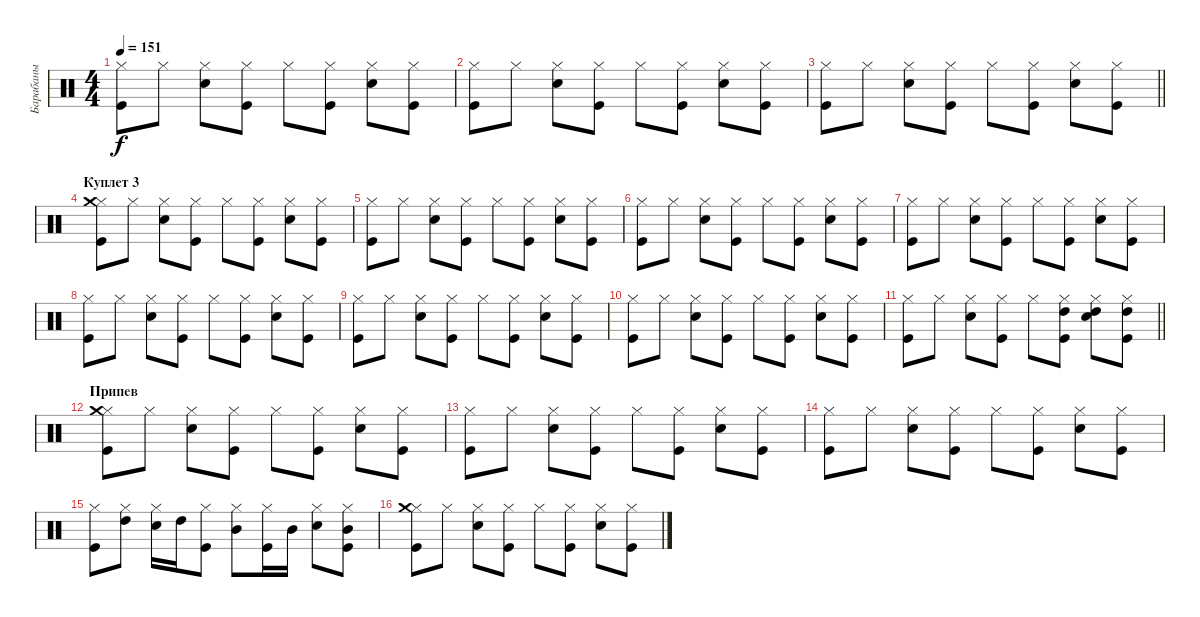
\track ("Барабаны" "Барабаны") {instrument percussion}
\staff {score}
\articulation defaults
\ts (4 4)
\tempo 151
\clef neutral
\ks c
("Kick (hit)" "Hi-Hat (closed)").8{dy f} "Hi-Hat (closed)".8 ("Snare (hit) 2" "Hi-Hat (closed)").8 ("Kick (hit)" "Hi-Hat (closed)").8 "Hi-Hat (closed)".8 ("Kick (hit)" "Hi-Hat (closed)").8 ("Snare (hit) 2" "Hi-Hat (closed)").8 ("Kick (hit)" "Hi-Hat (closed)").8 |
("Kick (hit)" "Hi-Hat (closed)").8 "Hi-Hat (closed)".8 ("Snare (hit) 2" "Hi-Hat (closed)").8 ("Kick (hit)" "Hi-Hat (closed)").8 "Hi-Hat (closed)".8 ("Kick (hit)" "Hi-Hat (closed)").8 ("Snare (hit) 2" "Hi-Hat (closed)").8 ("Kick (hit)" "Hi-Hat (closed)").8 |
\barLineRight lightlight
("Kick (hit)" "Hi-Hat (closed)").8 "Hi-Hat (closed)".8 ("Snare (hit) 2" "Hi-Hat (closed)").8 ("Kick (hit)" "Hi-Hat (closed)").8 "Hi-Hat (closed)".8 ("Kick (hit)" "Hi-Hat (closed)").8 ("Snare (hit) 2" "Hi-Hat (closed)").8 ("Kick (hit)" "Hi-Hat (closed)").8 |
\section ("" "Куплет 3")
("Kick (hit)" "Hi-Hat (closed)" "Crash medium (hit)").8 "Hi-Hat (closed)".8 ("Snare (hit) 2" "Hi-Hat (closed)").8 ("Kick (hit)" "Hi-Hat (closed)").8 "Hi-Hat (closed)".8 ("Kick (hit)" "Hi-Hat (closed)").8 ("Snare (hit) 2" "Hi-Hat (closed)").8 ("Kick (hit)" "Hi-Hat (closed)").8 |
("Kick (hit)" "Hi-Hat (closed)").8 "Hi-Hat (closed)".8 ("Snare (hit) 2" "Hi-Hat (closed)").8 ("Kick (hit)" "Hi-Hat (closed)").8 "Hi-Hat (closed)".8 ("Kick (hit)" "Hi-Hat (closed)").8 ("Snare (hit) 2" "Hi-Hat (closed)").8 ("Kick (hit)" "Hi-Hat (closed)").8 |
("Kick (hit)" "Hi-Hat (closed)").8 "Hi-Hat (closed)".8 ("Snare (hit) 2" "Hi-Hat (closed)").8 ("Kick (hit)" "Hi-Hat (closed)").8 "Hi-Hat (closed)".8 ("Kick (hit)" "Hi-Hat (closed)").8 ("Snare (hit) 2" "Hi-Hat (closed)").8 ("Kick (hit)" "Hi-Hat (closed)").8 |
("Kick (hit)" "Hi-Hat (closed)").8 "Hi-Hat (closed)".8 ("Snare (hit) 2" "Hi-Hat (closed)").8 ("Kick (hit)" "Hi-Hat (closed)").8 "Hi-Hat (closed)".8 ("Kick (hit)" "Hi-Hat (closed)").8 ("Snare (hit) 2" "Hi-Hat (closed)").8 ("Kick (hit)" "Hi-Hat (closed)").8 |
("Kick (hit)" "Hi-Hat (closed)").8 "Hi-Hat (closed)".8 ("Snare (hit) 2" "Hi-Hat (closed)").8 ("Kick (hit)" "Hi-Hat (closed)").8 "Hi-Hat (closed)".8 ("Kick (hit)" "Hi-Hat (closed)").8 ("Snare (hit) 2" "Hi-Hat (closed)").8 ("Kick (hit)" "Hi-Hat (closed)").8 |
("Kick (hit)" "Hi-Hat (closed)").8 "Hi-Hat (closed)".8 ("Snare (hit) 2" "Hi-Hat (closed)").8 ("Kick (hit)" "Hi-Hat (closed)").8 "Hi-Hat (closed)".8 ("Kick (hit)" "Hi-Hat (closed)").8 ("Snare (hit) 2" "Hi-Hat (closed)").8 ("Kick (hit)" "Hi-Hat (closed)").8 |
("Kick (hit)" "Hi-Hat (closed)").8 "Hi-Hat (closed)".8 ("Snare (hit) 2" "Hi-Hat (closed)").8 ("Kick (hit)" "Hi-Hat (closed)").8 "Hi-Hat (closed)".8 ("Kick (hit)" "Hi-Hat (closed)").8 ("Snare (hit) 2" "Hi-Hat (closed)").8 ("Kick (hit)" "Hi-Hat (closed)").8 |
\barLineRight lightlight
("Kick (hit)" "Hi-Hat (closed)").8 "Hi-Hat (closed)".8 ("Snare (hit) 2" "Hi-Hat (closed)").8 ("Kick (hit)" "Hi-Hat (closed)").8 "Hi-Hat (closed)".8 ("Kick (hit)" "Hi-Hat (closed)" "High Tom (hit)").8 ("Snare (hit) 2" "Hi-Hat (closed)" "High Tom (hit)").8 ("Kick (hit)" "Hi-Hat (closed)" "High Tom (hit)").8 |
\section ("" "Припев")
("Kick (hit)" "Hi-Hat (closed)" "Crash medium (hit)").8 "Hi-Hat (closed)".8 ("Snare (hit) 2" "Hi-Hat (closed)").8 ("Kick (hit)" "Hi-Hat (closed)").8 "Hi-Hat (closed)".8 ("Kick (hit)" "Hi-Hat (closed)").8 ("Snare (hit) 2" "Hi-Hat (closed)").8 ("Kick (hit)" "Hi-Hat (closed)").8 |
("Kick (hit)" "Hi-Hat (closed)").8 "Hi-Hat (closed)".8 ("Snare (hit) 2" "Hi-Hat (closed)").8 ("Kick (hit)" "Hi-Hat (closed)").8 "Hi-Hat (closed)".8 ("Kick (hit)" "Hi-Hat (closed)").8 ("Snare (hit) 2" "Hi-Hat (closed)").8 ("Kick (hit)" "Hi-Hat (closed)").8 |
("Kick (hit)" "Hi-Hat (closed)").8 "Hi-Hat (closed)".8 ("Snare (hit) 2" "Hi-Hat (closed)").8 ("Kick (hit)" "Hi-Hat (closed)").8 "Hi-Hat (closed)".8 ("Kick (hit)" "Hi-Hat (closed)").8 ("Snare (hit) 2" "Hi-Hat (closed)").8 ("Kick (hit)" "Hi-Hat (closed)").8 |
("Kick (hit)" "Hi-Hat (closed)").8 ("Hi-Hat (closed)" "High Tom (hit)").8 ("Snare (hit) 2" "Hi-Hat (closed)").16 "High Tom (hit)".16 ("Kick (hit)" "Hi-Hat (closed)").8 ("Hi-Hat (closed)" "Mid Tom (hit)").8 ("Kick (hit)" "Hi-Hat (closed)").16 "Mid Tom (hit)".16 ("Snare (hit) 2" "Hi-Hat (closed)").8 ("Kick (hit)" "Hi-Hat (closed)" "Mid Tom (hit)").8 |
("Kick (hit)" "Hi-Hat (closed)" "Crash medium (hit)").8 "Hi-Hat (closed)".8 ("Snare (hit) 2" "Hi-Hat (closed)").8 ("Kick (hit)" "Hi-Hat (closed)").8 "Hi-Hat (closed)".8 ("Kick (hit)" "Hi-Hat (closed)").8 ("Snare (hit) 2" "Hi-Hat (closed)").8 ("Kick (hit)" "Hi-Hat (closed)").8
